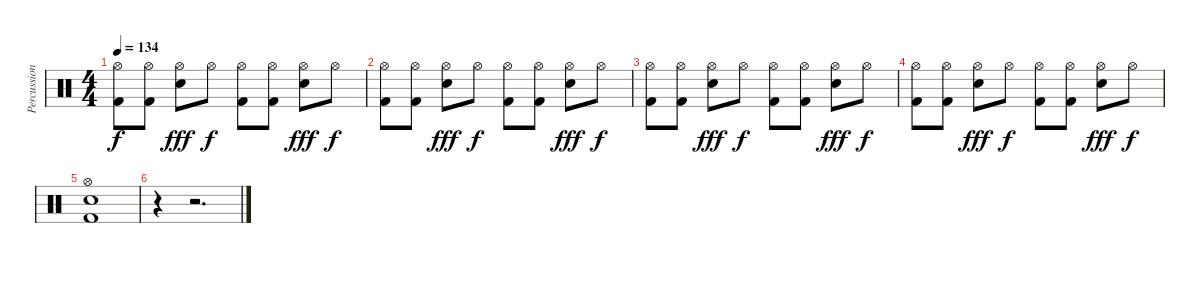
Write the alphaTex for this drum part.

\track ("Percussion" "Percussion") {instrument percussion}
\staff {score}
\articulation defaults
\ts (4 4)
\tempo 134
\clef neutral
\ks c
("Hi-Hat (open)" "Kick (hit) 2").8{dy f} ("Hi-Hat (open)" "Kick (hit) 2").8 ("Hi-Hat (open)" "Snare (hit) 2").8{dy fff} "Hi-Hat (open)".8{dy f} ("Hi-Hat (open)" "Kick (hit) 2").8 ("Hi-Hat (open)" "Kick (hit) 2").8 ("Hi-Hat (open)" "Snare (hit) 2").8{dy fff} "Hi-Hat (open)".8{dy f} |
("Hi-Hat (open)" "Kick (hit) 2").8 ("Hi-Hat (open)" "Kick (hit) 2").8 ("Hi-Hat (open)" "Snare (hit) 2").8{dy fff} "Hi-Hat (open)".8{dy f} ("Hi-Hat (open)" "Kick (hit) 2").8 ("Hi-Hat (open)" "Kick (hit) 2").8 ("Hi-Hat (open)" "Snare (hit) 2").8{dy fff} "Hi-Hat (open)".8{dy f} |
("Hi-Hat (open)" "Kick (hit) 2").8 ("Hi-Hat (open)" "Kick (hit) 2").8 ("Hi-Hat (open)" "Snare (hit) 2").8{dy fff} "Hi-Hat (open)".8{dy f} ("Hi-Hat (open)" "Kick (hit) 2").8 ("Hi-Hat (open)" "Kick (hit) 2").8 ("Hi-Hat (open)" "Snare (hit) 2").8{dy fff} "Hi-Hat (open)".8{dy f} |
("Hi-Hat (open)" "Kick (hit) 2").8 ("Hi-Hat (open)" "Kick (hit) 2").8 ("Hi-Hat (open)" "Snare (hit) 2").8{dy fff} "Hi-Hat (open)".8{dy f} ("Hi-Hat (open)" "Kick (hit) 2").8 ("Hi-Hat (open)" "Kick (hit) 2").8 ("Hi-Hat (open)" "Snare (hit) 2").8{dy fff} "Hi-Hat (open)".8{dy f} |
("Hi-Hat (open)" "Snare (hit) 2" "Kick (hit) 2").1 |
r.4 r.2{d}
